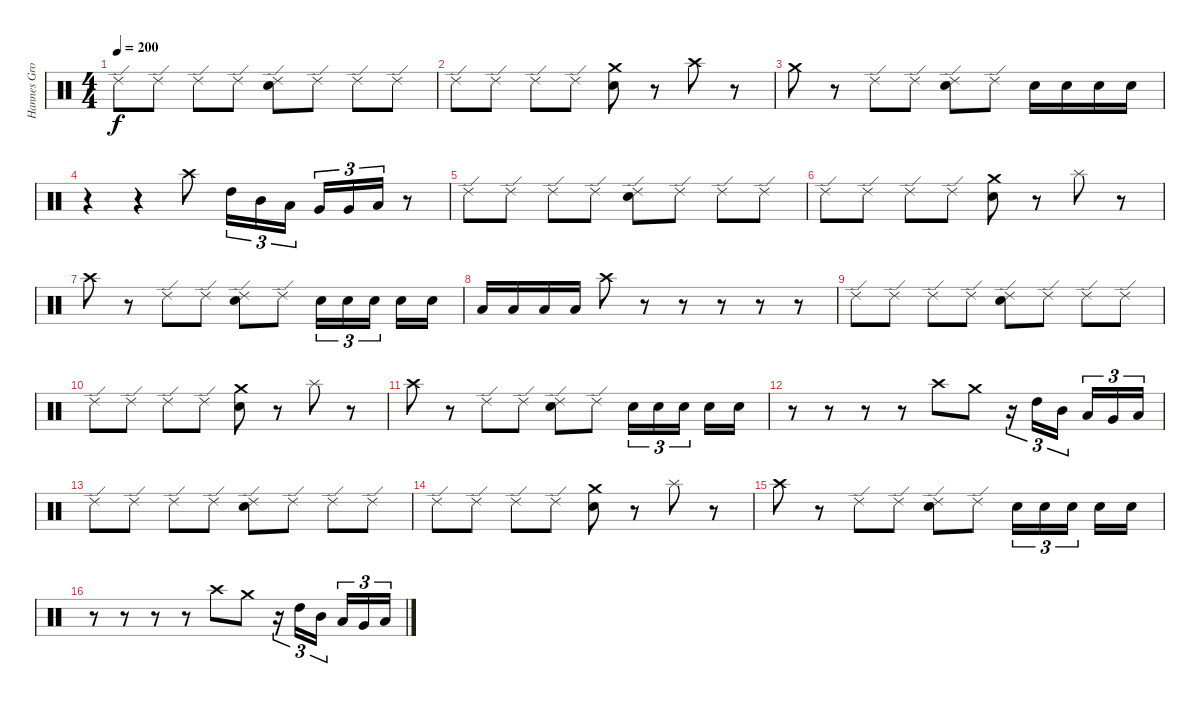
\track ("Hannes Grossmann" "Hannes Gro") {instrument percussion}
\staff {score}
\articulation defaults
\ts (4 4)
\tempo 200
\clef neutral
\ks c "Ride (edge) 2".8{dy f} "Ride (edge) 2".8 "Ride (edge) 2".8 "Ride (edge) 2".8
("Ride (edge) 2" "Electric Snare (hit)").8 "Ride (edge) 2".8 "Ride (edge) 2".8 "Ride (edge) 2".8 |
"Ride (edge) 2".8 "Ride (edge) 2".8 "Ride (edge) 2".8 "Ride (edge) 2".8 ("Crash medium (hit)" "Electric Snare (hit)").8 r.8 "Crash high (hit)".8 r.8 |
"Crash medium (hit)".8 r.8 "Ride (edge) 2".8 "Ride (edge) 2".8 ("Ride (edge) 2" "Electric Snare (hit)").8 "Ride (edge) 2".8 "Electric Snare (hit)".16 "Electric Snare (hit)".16 "Electric Snare (hit)".16 "Electric Snare (hit)".16 |
r.4 r.4 "Crash high (hit)".8 "High Tom (hit)".16{tu (3 2)} "Mid Tom (hit)".16{tu (3 2)} "Low Tom (hit)".16{tu (3 2)} "Very Low Tom (hit)".16{tu (3 2)} "Very Low Tom (hit)".16{tu (3 2)} "Low Floor Tom (hit)".16{tu (3 2)} r.8 |
"Ride (edge) 2".8 "Ride (edge) 2".8 "Ride (edge) 2".8 "Ride (edge) 2".8 ("Ride (edge) 2" "Electric Snare (hit)").8 "Ride (edge) 2".8 "Ride (edge) 2".8 "Ride (edge) 2".8 |
"Ride (edge) 2".8 "Ride (edge) 2".8 "Ride (edge) 2".8 "Ride (edge) 2".8 ("Crash medium (hit)" "Electric Snare (hit)").8 r.8 "Splash (hit)".8 r.8 |
"Crash high (hit)".8 r.8 "Ride (edge) 2".8 "Ride (edge) 2".8 ("Ride (edge) 2" "Electric Snare (hit)").8 "Ride (edge) 2".8 "Electric Snare (hit)".16{tu (3 2)} "Electric Snare (hit)".16{tu (3 2)} "Electric Snare (hit)".16{tu (3 2) beam splitsecondary} "Electric Snare (hit)".16 "Electric Snare (hit)".16 |
"Low Tom (hit)".16 "Low Tom (hit)".16 "Low Tom (hit)".16 "Low Tom (hit)".16 "Crash high (hit)".8 r.8 r.8 r.8 r.8 r.8 |
"Ride (edge) 2".8 "Ride (edge) 2".8 "Ride (edge) 2".8 "Ride (edge) 2".8 ("Ride (edge) 2" "Electric Snare (hit)").8 "Ride (edge) 2".8 "Ride (edge) 2".8 "Ride (edge) 2".8 |
"Ride (edge) 2".8 "Ride (edge) 2".8 "Ride (edge) 2".8 "Ride (edge) 2".8 ("Crash medium (hit)" "Electric Snare (hit)").8 r.8 "Splash (hit)".8 r.8 |
"Crash high (hit)".8 r.8 "Ride (edge) 2".8 "Ride (edge) 2".8 ("Ride (edge) 2" "Electric Snare (hit)").8 "Ride (edge) 2".8 "Electric Snare (hit)".16{tu (3 2)} "Electric Snare (hit)".16{tu (3 2)} "Electric Snare (hit)".16{tu (3 2) beam splitsecondary} "Electric Snare (hit)".16 "Electric Snare (hit)".16 |
r.8 r.8 r.8 r.8 "Crash high (hit)".8 "Crash medium (hit)".8 r.16{tu (3 2)} "High Tom (hit)".16{tu (3 2)} "Mid Tom (hit)".16{tu (3 2) beam splitsecondary} "Low Tom (hit)".16{tu (3 2)} "Very Low Tom (hit)".16{tu (3 2)} "Low Floor Tom (hit)".16{tu (3 2)} |
"Ride (edge) 2".8 "Ride (edge) 2".8 "Ride (edge) 2".8 "Ride (edge) 2".8 ("Ride (edge) 2" "Electric Snare (hit)").8 "Ride (edge) 2".8 "Ride (edge) 2".8 "Ride (edge) 2".8 |
"Ride (edge) 2".8 "Ride (edge) 2".8 "Ride (edge) 2".8 "Ride (edge) 2".8 ("Crash medium (hit)" "Electric Snare (hit)").8 r.8 "Splash (hit)".8 r.8 |
"Crash high (hit)".8 r.8 "Ride (edge) 2".8 "Ride (edge) 2".8 ("Ride (edge) 2" "Electric Snare (hit)").8 "Ride (edge) 2".8 "Electric Snare (hit)".16{tu (3 2)} "Electric Snare (hit)".16{tu (3 2)} "Electric Snare (hit)".16{tu (3 2) beam splitsecondary} "Electric Snare (hit)".16 "Electric Snare (hit)".16 |
r.8 r.8 r.8 r.8 "Crash high (hit)".8 "Crash medium (hit)".8 r.16{tu (3 2)} "High Tom (hit)".16{tu (3 2)} "Mid Tom (hit)".16{tu (3 2) beam splitsecondary} "Low Tom (hit)".16{tu (3 2)} "Very Low Tom (hit)".16{tu (3 2)} "Low Floor Tom (hit)".16{tu (3 2)}
